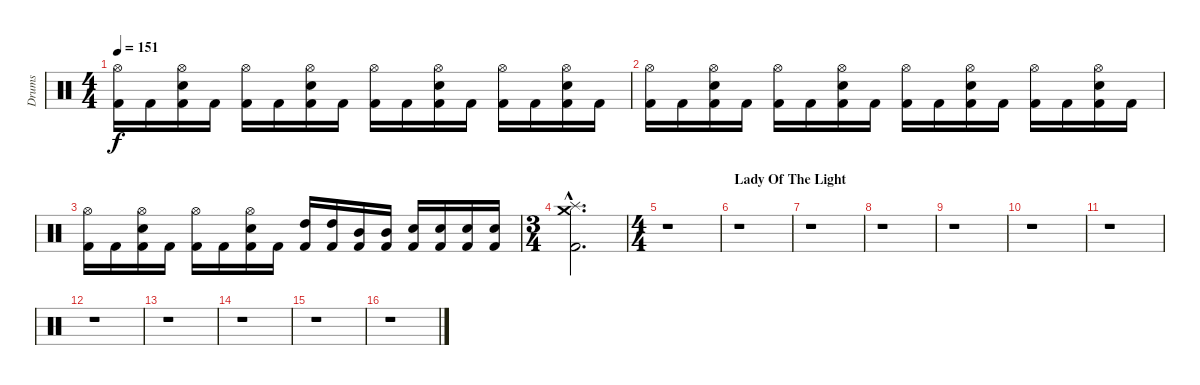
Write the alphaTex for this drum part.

\track ("Drums" "Drums") {instrument percussion}
\staff {score}
\articulation defaults
\ts (4 4)
\section ("" "")
\tempo 151
\clef neutral
\ks c
("Kick (hit) 2" "Hi-Hat (open)").16{dy f} "Kick (hit) 2".16 ("Kick (hit) 2" "Snare (hit) 2" "Hi-Hat (open)").16 "Kick (hit) 2".16 ("Kick (hit) 2" "Hi-Hat (open)").16 "Kick (hit) 2".16 ("Kick (hit) 2" "Snare (hit) 2" "Hi-Hat (open)").16 "Kick (hit) 2".16 ("Kick (hit) 2" "Hi-Hat (open)").16 "Kick (hit) 2".16 ("Kick (hit) 2" "Snare (hit) 2" "Hi-Hat (open)").16 "Kick (hit) 2".16 ("Kick (hit) 2" "Hi-Hat (open)").16 "Kick (hit) 2".16 ("Kick (hit) 2" "Snare (hit) 2" "Hi-Hat (open)").16 "Kick (hit) 2".16 |
("Kick (hit) 2" "Hi-Hat (open)").16 "Kick (hit) 2".16 ("Kick (hit) 2" "Snare (hit) 2" "Hi-Hat (open)").16 "Kick (hit) 2".16 ("Kick (hit) 2" "Hi-Hat (open)").16 "Kick (hit) 2".16 ("Kick (hit) 2" "Snare (hit) 2" "Hi-Hat (open)").16 "Kick (hit) 2".16 ("Kick (hit) 2" "Hi-Hat (open)").16 "Kick (hit) 2".16 ("Kick (hit) 2" "Snare (hit) 2" "Hi-Hat (open)").16 "Kick (hit) 2".16 ("Kick (hit) 2" "Hi-Hat (open)").16 "Kick (hit) 2".16 ("Kick (hit) 2" "Snare (hit) 2" "Hi-Hat (open)").16 "Kick (hit) 2".16 |
("Kick (hit) 2" "Hi-Hat (open)").16 "Kick (hit) 2".16 ("Kick (hit) 2" "Snare (hit) 2" "Hi-Hat (open)").16 "Kick (hit) 2".16 ("Kick (hit) 2" "Hi-Hat (open)").16 "Kick (hit) 2".16 ("Kick (hit) 2" "Snare (hit) 2" "Hi-Hat (open)").16 "Kick (hit) 2".16 ("Kick (hit) 2" "High Tom (hit)").16 ("Kick (hit) 2" "High Tom (hit)").16 ("Kick (hit) 2" "Mid Tom (hit)").16 ("Kick (hit) 2" "Mid Tom (hit)").16 ("Kick (hit) 2" "Snare (hit) 2").16 ("Kick (hit) 2" "Snare (hit) 2").16 ("Kick (hit) 2" "Snare (hit) 2").16 ("Kick (hit) 2" "Snare (hit) 2").16 |
\ts (3 4)
("Kick (hit) 2"{hac} "Splash (hit)"{hac} "Crash medium (hit)"{hac}).2{d} |
\ts (4 4)
r.1 |
\section ("" "Lady Of The Light")
r.1 |
r.1 |
r.1 |
r.1 |
r.1 |
r.1 |
r.1 |
r.1 |
r.1 |
r.1 |
r.1
